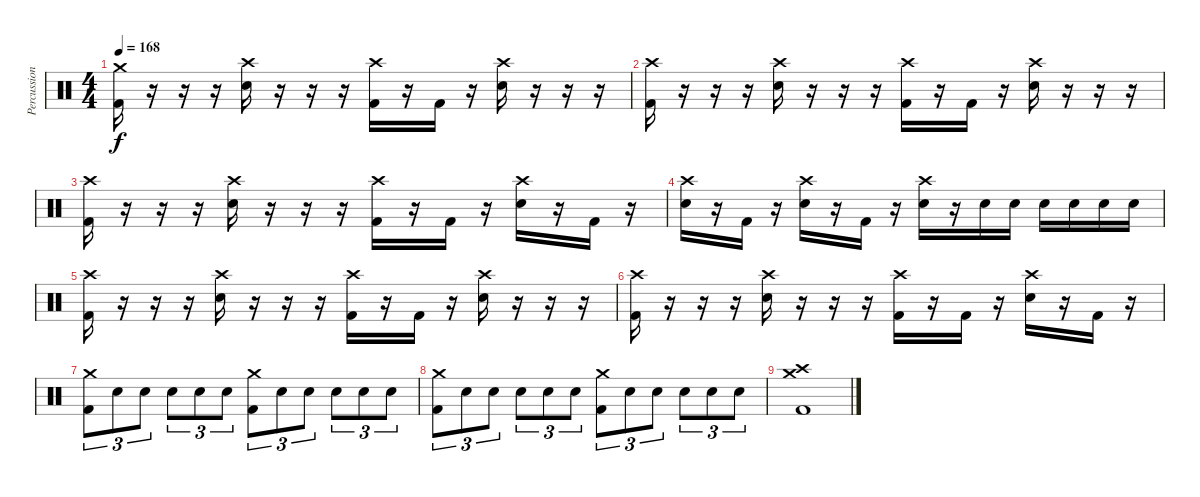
\track ("Percussion" "Percussion") {instrument percussion}
\staff {score}
\articulation defaults
\ts (4 4)
\tempo 168
\clef neutral
\ks c
("Crash medium (hit)" "Kick (hit) 2").16{dy f} r.16 r.16 r.16 ("Crash high (hit)" "Snare (hit) 2").16 r.16 r.16 r.16 ("Crash high (hit)" "Kick (hit) 2").16 r.16 "Kick (hit) 2".16 r.16 ("Crash high (hit)" "Snare (hit) 2").16 r.16 r.16 r.16 |
("Crash high (hit)" "Kick (hit) 2").16 r.16 r.16 r.16 ("Crash high (hit)" "Snare (hit) 2").16 r.16 r.16 r.16 ("Crash high (hit)" "Kick (hit) 2").16 r.16 "Kick (hit) 2".16 r.16 ("Crash high (hit)" "Snare (hit) 2").16 r.16 r.16 r.16 |
("Crash high (hit)" "Kick (hit) 2").16 r.16 r.16 r.16 ("Crash high (hit)" "Snare (hit) 2").16 r.16 r.16 r.16 ("Crash high (hit)" "Kick (hit) 2").16 r.16 "Kick (hit) 2".16 r.16 ("Crash high (hit)" "Snare (hit) 2").16 r.16 "Kick (hit) 2".16 r.16 |
("Crash high (hit)" "Snare (hit) 2").16 r.16 "Kick (hit) 2".16 r.16 ("Crash high (hit)" "Snare (hit) 2").16 r.16 "Kick (hit) 2".16 r.16 ("Crash high (hit)" "Snare (hit) 2").16 r.16 "Snare (hit) 2".16 "Snare (hit) 2".16 "Snare (hit) 2".16 "Snare (hit) 2".16 "Snare (hit) 2".16 "Snare (hit) 2".16 |
("Crash high (hit)" "Kick (hit) 2").16 r.16 r.16 r.16 ("Crash high (hit)" "Snare (hit) 2").16 r.16 r.16 r.16 ("Crash high (hit)" "Kick (hit) 2").16 r.16 "Kick (hit) 2".16 r.16 ("Crash high (hit)" "Snare (hit) 2").16 r.16 r.16 r.16 |
("Crash high (hit)" "Kick (hit) 2").16 r.16 r.16 r.16 ("Crash high (hit)" "Snare (hit) 2").16 r.16 r.16 r.16 ("Crash high (hit)" "Kick (hit) 2").16 r.16 "Kick (hit) 2".16 r.16 ("Crash high (hit)" "Snare (hit) 2").16 r.16 "Kick (hit) 2".16 r.16 |
("Crash medium (hit)" "Kick (hit) 2").8{tu (3 2)} "Snare (hit) 2".8{tu (3 2)} "Snare (hit) 2".8{tu (3 2)} "Snare (hit) 2".8{tu (3 2)} "Snare (hit) 2".8{tu (3 2)} "Snare (hit) 2".8{tu (3 2)} ("Crash medium (hit)" "Kick (hit) 2").8{tu (3 2)} "Snare (hit) 2".8{tu (3 2)} "Snare (hit) 2".8{tu (3 2)} "Snare (hit) 2".8{tu (3 2)} "Snare (hit) 2".8{tu (3 2)} "Snare (hit) 2".8{tu (3 2)} |
("Crash medium (hit)" "Kick (hit) 2").8{tu (3 2)} "Snare (hit) 2".8{tu (3 2)} "Snare (hit) 2".8{tu (3 2)} "Snare (hit) 2".8{tu (3 2)} "Snare (hit) 2".8{tu (3 2)} "Snare (hit) 2".8{tu (3 2)} ("Crash medium (hit)" "Kick (hit) 2").8{tu (3 2)} "Snare (hit) 2".8{tu (3 2)} "Snare (hit) 2".8{tu (3 2)} "Snare (hit) 2".8{tu (3 2)} "Snare (hit) 2".8{tu (3 2)} "Snare (hit) 2".8{tu (3 2)} |
("Crash high (hit)" "Crash medium (hit)" "Kick (hit) 2").1
